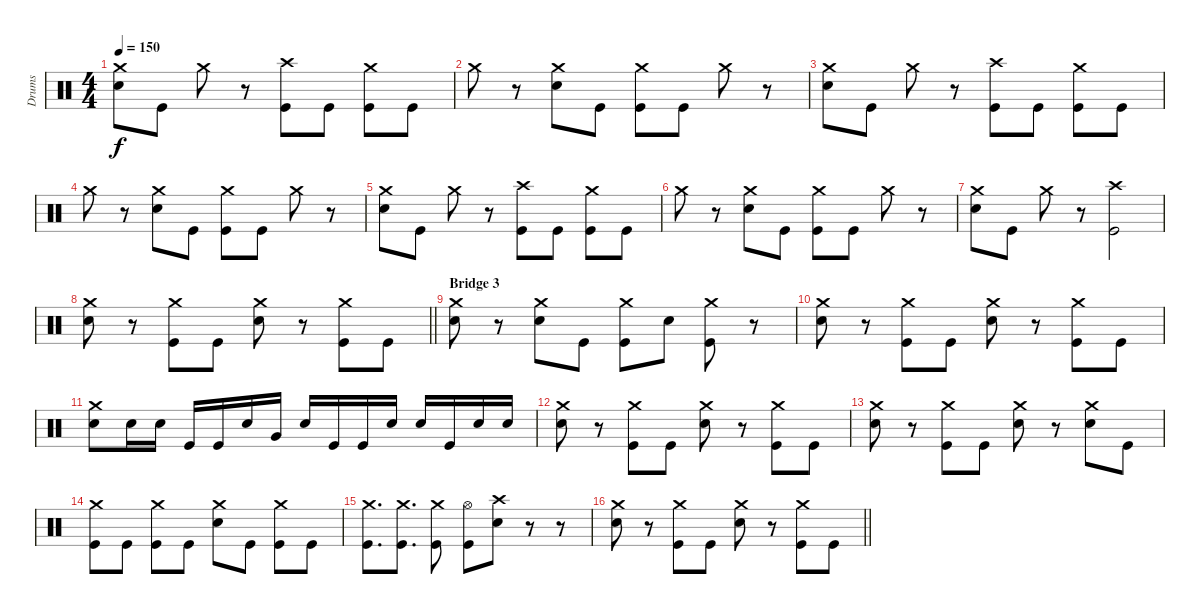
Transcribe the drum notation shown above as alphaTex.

\track ("Drums" "Drums") {instrument percussion}
\staff {score}
\articulation defaults
\ts (4 4)
\tempo 150
\clef neutral
\ks c
("Crash medium (hit)" "Electric Snare (hit)").8{dy f} "Kick (hit)".8 "Crash medium (hit)".8 r.8 ("Crash high (hit)" "Kick (hit)").8 "Kick (hit)".8 ("Crash medium (hit)" "Kick (hit)").8 "Kick (hit)".8 |
"Crash medium (hit)".8 r.8 ("Crash medium (hit)" "Electric Snare (hit)").8 "Kick (hit)".8 ("Crash medium (hit)" "Kick (hit)").8 "Kick (hit)".8 "Crash medium (hit)".8 r.8 |
("Crash medium (hit)" "Electric Snare (hit)").8 "Kick (hit)".8 "Crash medium (hit)".8 r.8 ("Crash high (hit)" "Kick (hit)").8 "Kick (hit)".8 ("Crash medium (hit)" "Kick (hit)").8 "Kick (hit)".8 |
"Crash medium (hit)".8 r.8 ("Crash medium (hit)" "Electric Snare (hit)").8 "Kick (hit)".8 ("Crash medium (hit)" "Kick (hit)").8 "Kick (hit)".8 "Crash medium (hit)".8 r.8 |
("Crash medium (hit)" "Electric Snare (hit)").8 "Kick (hit)".8 "Crash medium (hit)".8 r.8 ("Crash high (hit)" "Kick (hit)").8 "Kick (hit)".8 ("Crash medium (hit)" "Kick (hit)").8 "Kick (hit)".8 |
"Crash medium (hit)".8 r.8 ("Crash medium (hit)" "Electric Snare (hit)").8 "Kick (hit)".8 ("Crash medium (hit)" "Kick (hit)").8 "Kick (hit)".8 "Crash medium (hit)".8 r.8 |
("Crash medium (hit)" "Electric Snare (hit)").8 "Kick (hit)".8 "Crash medium (hit)".8 r.8 ("Crash high (hit)" "Kick (hit)").2 |
\barLineRight lightlight
("Crash medium (hit)" "Electric Snare (hit)").8 r.8 ("Crash medium (hit)" "Kick (hit)").8 "Kick (hit)".8 ("Crash medium (hit)" "Electric Snare (hit)").8 r.8 ("Crash medium (hit)" "Kick (hit)").8 "Kick (hit)".8 |
\section ("" "Bridge 3")
("Crash medium (hit)" "Electric Snare (hit)").8 r.8 ("Crash medium (hit)" "Electric Snare (hit)").8 "Kick (hit)".8 ("Crash medium (hit)" "Kick (hit)").8 "Electric Snare (hit)".8 ("Crash medium (hit)" "Kick (hit)").8 r.8 |
("Crash medium (hit)" "Electric Snare (hit)").8 r.8 ("Crash medium (hit)" "Kick (hit)").8 "Kick (hit)".8 ("Crash medium (hit)" "Electric Snare (hit)").8 r.8 ("Crash medium (hit)" "Kick (hit)").8 "Kick (hit)".8 |
("Crash medium (hit)" "Electric Snare (hit)").8 "Electric Snare (hit)".16 "Electric Snare (hit)".16 "Kick (hit)".16 "Kick (hit)".16 "Electric Snare (hit)".16 "Very Low Tom (hit)".16 "Electric Snare (hit)".16 "Kick (hit)".16 "Kick (hit)".16 "Electric Snare (hit)".16 "Electric Snare (hit)".16 "Kick (hit)".16 "Electric Snare (hit)".16 "Electric Snare (hit)".16 |
("Crash medium (hit)" "Electric Snare (hit)").8 r.8 ("Crash medium (hit)" "Kick (hit)").8 "Kick (hit)".8 ("Crash medium (hit)" "Electric Snare (hit)").8 r.8 ("Crash medium (hit)" "Kick (hit)").8 "Kick (hit)".8 |
("Crash medium (hit)" "Electric Snare (hit)").8 r.8 ("Crash medium (hit)" "Kick (hit)").8 "Kick (hit)".8 ("Crash medium (hit)" "Electric Snare (hit)").8 r.8 ("Crash medium (hit)" "Electric Snare (hit)").8 "Kick (hit)".8 |
("Crash medium (hit)" "Kick (hit)").8 "Kick (hit)".8 ("Crash medium (hit)" "Kick (hit)").8 "Kick (hit)".8 ("Crash medium (hit)" "Electric Snare (hit)").8 "Kick (hit)".8 ("Crash medium (hit)" "Kick (hit)").8 "Kick (hit)".8 |
("Crash medium (hit)" "Kick (hit)").8{d} ("Crash medium (hit)" "Kick (hit)").8{d} ("Crash medium (hit)" "Kick (hit)").8 ("Hi-Hat (open)" "Kick (hit)").8 ("Crash high (hit)" "Electric Snare (hit)").8 r.8 r.8 |
\barLineRight lightlight
("Crash medium (hit)" "Electric Snare (hit)").8 r.8 ("Crash medium (hit)" "Kick (hit)").8 "Kick (hit)".8 ("Crash medium (hit)" "Electric Snare (hit)").8 r.8 ("Crash medium (hit)" "Kick (hit)").8 "Kick (hit)".8
